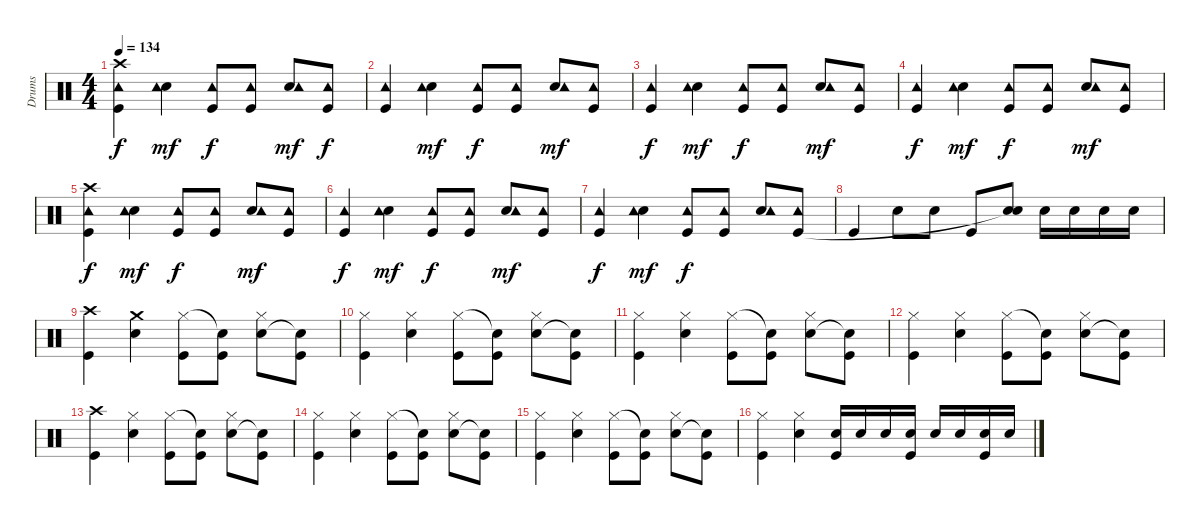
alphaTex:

\track ("Drums" "Drums") {instrument percussion}
\staff {score}
\articulation defaults
\ts (4 4)
\tempo 134
\clef neutral
\ks c
("Crash high (hit)" "Tambourine (hit)" "Kick (hit)").4{dy f} ("Electric Snare (hit)" "Tambourine (hit)").4{dy mf} ("Tambourine (hit)" "Kick (hit)").8{dy f} ("Tambourine (hit)" "Kick (hit)").8 ("Electric Snare (hit)" "Tambourine (hit)").8{dy mf} ("Tambourine (hit)" "Kick (hit)").8{dy f} |
("Tambourine (hit)" "Kick (hit)").4 ("Electric Snare (hit)" "Tambourine (hit)").4{dy mf} ("Tambourine (hit)" "Kick (hit)").8{dy f} ("Tambourine (hit)" "Kick (hit)").8 ("Electric Snare (hit)" "Tambourine (hit)").8{dy mf} ("Tambourine (hit)" "Kick (hit)").8 |
("Tambourine (hit)" "Kick (hit)").4{dy f} ("Electric Snare (hit)" "Tambourine (hit)").4{dy mf} ("Tambourine (hit)" "Kick (hit)").8{dy f} ("Tambourine (hit)" "Kick (hit)").8 ("Electric Snare (hit)" "Tambourine (hit)").8{dy mf} ("Tambourine (hit)" "Kick (hit)").8 |
("Tambourine (hit)" "Kick (hit)").4{dy f} ("Electric Snare (hit)" "Tambourine (hit)").4{dy mf} ("Tambourine (hit)" "Kick (hit)").8{dy f} ("Tambourine (hit)" "Kick (hit)").8 ("Electric Snare (hit)" "Tambourine (hit)").8{dy mf} ("Tambourine (hit)" "Kick (hit)").8 |
("Crash high (hit)" "Tambourine (hit)" "Kick (hit)").4{dy f} ("Electric Snare (hit)" "Tambourine (hit)").4{dy mf} ("Tambourine (hit)" "Kick (hit)").8{dy f} ("Tambourine (hit)" "Kick (hit)").8 ("Electric Snare (hit)" "Tambourine (hit)").8{dy mf} ("Tambourine (hit)" "Kick (hit)").8 |
("Tambourine (hit)" "Kick (hit)").4{dy f} ("Electric Snare (hit)" "Tambourine (hit)").4{dy mf} ("Tambourine (hit)" "Kick (hit)").8{dy f} ("Tambourine (hit)" "Kick (hit)").8 ("Electric Snare (hit)" "Tambourine (hit)").8{dy mf} ("Tambourine (hit)" "Kick (hit)").8 |
("Tambourine (hit)" "Kick (hit)").4{dy f} ("Electric Snare (hit)" "Tambourine (hit)").4{dy mf} ("Tambourine (hit)" "Kick (hit)").8{dy f} ("Tambourine (hit)" "Kick (hit)").8 ("Electric Snare (hit)" "Tambourine (hit)").8 ("Tambourine (hit)" "Kick (hit)").8 |
"Kick (hit)".4 "Electric Snare (hit)".8 "Electric Snare (hit)".8 "Kick (hit)".8 ("Electric Snare (hit)" "Snare (hit)"{t}).8 "Electric Snare (hit)".16 "Electric Snare (hit)".16 "Electric Snare (hit)".16 "Electric Snare (hit)".16 |
("Crash high (hit)" "Kick (hit)").4 ("Electric Snare (hit)" "Crash medium (hit)").4 ("Hi-Hat (closed)" "Kick (hit)").8 ("Snare (hit)"{t} "Kick (hit)").8 ("Electric Snare (hit)" "Hi-Hat (closed)").8 ("Snare (hit)"{t} "Kick (hit)").8 |
("Hi-Hat (closed)" "Kick (hit)").4 ("Electric Snare (hit)" "Hi-Hat (closed)").4 ("Hi-Hat (closed)" "Kick (hit)").8 ("Snare (hit)"{t} "Kick (hit)").8 ("Electric Snare (hit)" "Hi-Hat (closed)").8 ("Snare (hit)"{t} "Kick (hit)").8 |
("Hi-Hat (closed)" "Kick (hit)").4 ("Electric Snare (hit)" "Hi-Hat (closed)").4 ("Hi-Hat (closed)" "Kick (hit)").8 ("Snare (hit)"{t} "Kick (hit)").8 ("Electric Snare (hit)" "Hi-Hat (closed)").8 ("Snare (hit)"{t} "Kick (hit)").8 |
("Hi-Hat (closed)" "Kick (hit)").4 ("Electric Snare (hit)" "Hi-Hat (closed)").4 ("Hi-Hat (closed)" "Kick (hit)").8 ("Snare (hit)"{t} "Kick (hit)").8 ("Electric Snare (hit)" "Hi-Hat (closed)").8 ("Snare (hit)"{t} "Kick (hit)").8 |
("Crash high (hit)" "Kick (hit)").4 ("Electric Snare (hit)" "Hi-Hat (closed)").4 ("Hi-Hat (closed)" "Kick (hit)").8 ("Snare (hit)"{t} "Kick (hit)").8 ("Electric Snare (hit)" "Hi-Hat (closed)").8 ("Snare (hit)"{t} "Kick (hit)").8 |
("Hi-Hat (closed)" "Kick (hit)").4 ("Electric Snare (hit)" "Hi-Hat (closed)").4 ("Hi-Hat (closed)" "Kick (hit)").8 ("Snare (hit)"{t} "Kick (hit)").8 ("Electric Snare (hit)" "Hi-Hat (closed)").8 ("Snare (hit)"{t} "Kick (hit)").8 |
("Hi-Hat (closed)" "Kick (hit)").4 ("Electric Snare (hit)" "Hi-Hat (closed)").4 ("Hi-Hat (closed)" "Kick (hit)").8 ("Snare (hit)"{t} "Kick (hit)").8 ("Electric Snare (hit)" "Hi-Hat (closed)").8 ("Snare (hit)"{t} "Kick (hit)").8 |
("Hi-Hat (closed)" "Kick (hit)").4 ("Electric Snare (hit)" "Hi-Hat (closed)").4 ("Electric Snare (hit)" "Kick (hit)").16 "Electric Snare (hit)".16 "Electric Snare (hit)".16 ("Electric Snare (hit)" "Kick (hit)").16 "Electric Snare (hit)".16 "Electric Snare (hit)".16 ("Electric Snare (hit)" "Kick (hit)").16 "Electric Snare (hit)".16
